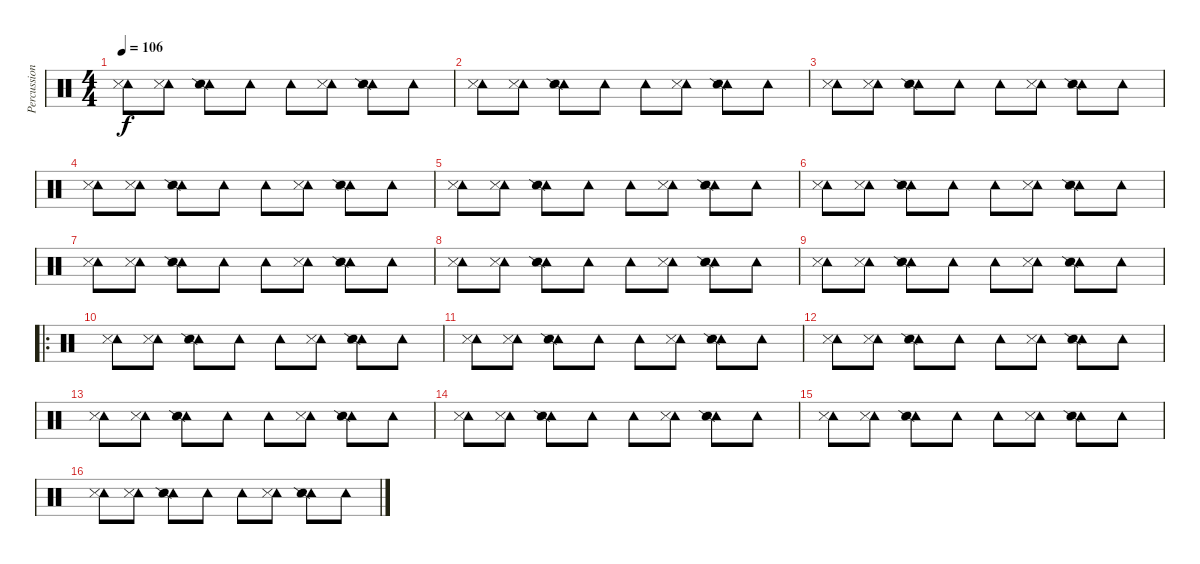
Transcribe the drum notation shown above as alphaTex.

\track ("Percussion" "Percussion") {instrument percussion}
\staff {score}
\articulation defaults
\ts (4 4)
\tempo 106
\clef neutral
\ks c
("Tambourine (hit)" "Snare (side stick) 3").8{dy f} ("Tambourine (hit)" "Snare (side stick) 3").8 ("Tambourine (hit)" "Snare (side stick) 2").8 "Tambourine (hit)".8 "Tambourine (hit)".8 ("Tambourine (hit)" "Snare (side stick) 3").8 ("Tambourine (hit)" "Snare (side stick) 2").8 "Tambourine (hit)".8 |
("Tambourine (hit)" "Snare (side stick) 3").8 ("Tambourine (hit)" "Snare (side stick) 3").8 ("Tambourine (hit)" "Snare (side stick) 2").8 "Tambourine (hit)".8 "Tambourine (hit)".8 ("Tambourine (hit)" "Snare (side stick) 3").8 ("Tambourine (hit)" "Snare (side stick) 2").8 "Tambourine (hit)".8 |
("Tambourine (hit)" "Snare (side stick) 3").8 ("Tambourine (hit)" "Snare (side stick) 3").8 ("Tambourine (hit)" "Snare (side stick) 2").8 "Tambourine (hit)".8 "Tambourine (hit)".8 ("Tambourine (hit)" "Snare (side stick) 3").8 ("Tambourine (hit)" "Snare (side stick) 2").8 "Tambourine (hit)".8 |
("Tambourine (hit)" "Snare (side stick) 3").8 ("Tambourine (hit)" "Snare (side stick) 3").8 ("Tambourine (hit)" "Snare (side stick) 2").8 "Tambourine (hit)".8 "Tambourine (hit)".8 ("Tambourine (hit)" "Snare (side stick) 3").8 ("Tambourine (hit)" "Snare (side stick) 2").8 "Tambourine (hit)".8 |
("Tambourine (hit)" "Snare (side stick) 3").8 ("Tambourine (hit)" "Snare (side stick) 3").8 ("Tambourine (hit)" "Snare (side stick) 2").8 "Tambourine (hit)".8 "Tambourine (hit)".8 ("Tambourine (hit)" "Snare (side stick) 3").8 ("Tambourine (hit)" "Snare (side stick) 2").8 "Tambourine (hit)".8 |
("Tambourine (hit)" "Snare (side stick) 3").8 ("Tambourine (hit)" "Snare (side stick) 3").8 ("Tambourine (hit)" "Snare (side stick) 2").8 "Tambourine (hit)".8 "Tambourine (hit)".8 ("Tambourine (hit)" "Snare (side stick) 3").8 ("Tambourine (hit)" "Snare (side stick) 2").8 "Tambourine (hit)".8 |
("Tambourine (hit)" "Snare (side stick) 3").8 ("Tambourine (hit)" "Snare (side stick) 3").8 ("Tambourine (hit)" "Snare (side stick) 2").8 "Tambourine (hit)".8 "Tambourine (hit)".8 ("Tambourine (hit)" "Snare (side stick) 3").8 ("Tambourine (hit)" "Snare (side stick) 2").8 "Tambourine (hit)".8 |
("Tambourine (hit)" "Snare (side stick) 3").8 ("Tambourine (hit)" "Snare (side stick) 3").8 ("Tambourine (hit)" "Snare (side stick) 2").8 "Tambourine (hit)".8 "Tambourine (hit)".8 ("Tambourine (hit)" "Snare (side stick) 3").8 ("Tambourine (hit)" "Snare (side stick) 2").8 "Tambourine (hit)".8 |
("Tambourine (hit)" "Snare (side stick) 3").8 ("Tambourine (hit)" "Snare (side stick) 3").8 ("Tambourine (hit)" "Snare (side stick) 2").8 "Tambourine (hit)".8 "Tambourine (hit)".8 ("Tambourine (hit)" "Snare (side stick) 3").8 ("Tambourine (hit)" "Snare (side stick) 2").8 "Tambourine (hit)".8 |
\ro
("Tambourine (hit)" "Snare (side stick) 3").8 ("Tambourine (hit)" "Snare (side stick) 3").8 ("Tambourine (hit)" "Snare (side stick) 2").8 "Tambourine (hit)".8 "Tambourine (hit)".8 ("Tambourine (hit)" "Snare (side stick) 3").8 ("Tambourine (hit)" "Snare (side stick) 2").8 "Tambourine (hit)".8 |
("Tambourine (hit)" "Snare (side stick) 3").8 ("Tambourine (hit)" "Snare (side stick) 3").8 ("Tambourine (hit)" "Snare (side stick) 2").8 "Tambourine (hit)".8 "Tambourine (hit)".8 ("Tambourine (hit)" "Snare (side stick) 3").8 ("Tambourine (hit)" "Snare (side stick) 2").8 "Tambourine (hit)".8 |
("Tambourine (hit)" "Snare (side stick) 3").8 ("Tambourine (hit)" "Snare (side stick) 3").8 ("Tambourine (hit)" "Snare (side stick) 2").8 "Tambourine (hit)".8 "Tambourine (hit)".8 ("Tambourine (hit)" "Snare (side stick) 3").8 ("Tambourine (hit)" "Snare (side stick) 2").8 "Tambourine (hit)".8 |
("Tambourine (hit)" "Snare (side stick) 3").8 ("Tambourine (hit)" "Snare (side stick) 3").8 ("Tambourine (hit)" "Snare (side stick) 2").8 "Tambourine (hit)".8 "Tambourine (hit)".8 ("Tambourine (hit)" "Snare (side stick) 3").8 ("Tambourine (hit)" "Snare (side stick) 2").8 "Tambourine (hit)".8 |
("Tambourine (hit)" "Snare (side stick) 3").8 ("Tambourine (hit)" "Snare (side stick) 3").8 ("Tambourine (hit)" "Snare (side stick) 2").8 "Tambourine (hit)".8 "Tambourine (hit)".8 ("Tambourine (hit)" "Snare (side stick) 3").8 ("Tambourine (hit)" "Snare (side stick) 2").8 "Tambourine (hit)".8 |
("Tambourine (hit)" "Snare (side stick) 3").8 ("Tambourine (hit)" "Snare (side stick) 3").8 ("Tambourine (hit)" "Snare (side stick) 2").8 "Tambourine (hit)".8 "Tambourine (hit)".8 ("Tambourine (hit)" "Snare (side stick) 3").8 ("Tambourine (hit)" "Snare (side stick) 2").8 "Tambourine (hit)".8 |
("Tambourine (hit)" "Snare (side stick) 3").8 ("Tambourine (hit)" "Snare (side stick) 3").8 ("Tambourine (hit)" "Snare (side stick) 2").8 "Tambourine (hit)".8 "Tambourine (hit)".8 ("Tambourine (hit)" "Snare (side stick) 3").8 ("Tambourine (hit)" "Snare (side stick) 2").8 "Tambourine (hit)".8
